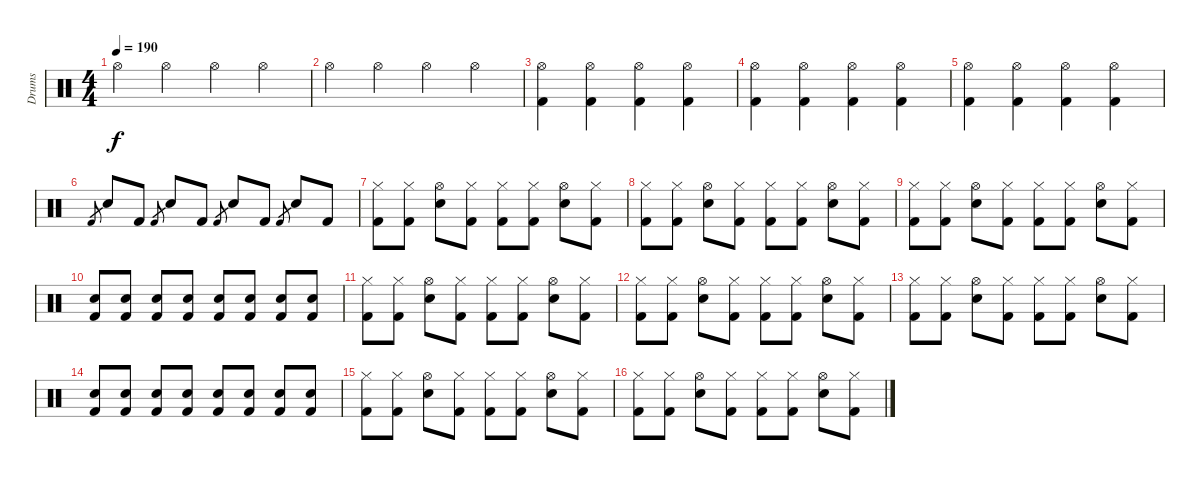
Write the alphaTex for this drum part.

\track ("Drums" "Drums") {instrument percussion}
\staff {score}
\articulation defaults
\ts (4 4)
\tempo 190
\clef neutral
\ks c "Hi-Hat (open)".4{dy f} "Hi-Hat (open)".4 "Hi-Hat (open)".4 "Hi-Hat (open)".4
|
"Hi-Hat (open)".4 "Hi-Hat (open)".4 "Hi-Hat (open)".4 "Hi-Hat (open)".4 |
("Hi-Hat (open)" "Kick (hit) 2").4 ("Hi-Hat (open)" "Kick (hit) 2").4 ("Hi-Hat (open)" "Kick (hit) 2").4 ("Hi-Hat (open)" "Kick (hit) 2").4 |
("Hi-Hat (open)" "Kick (hit) 2").4 ("Hi-Hat (open)" "Kick (hit) 2").4 ("Hi-Hat (open)" "Kick (hit) 2").4 ("Hi-Hat (open)" "Kick (hit) 2").4 |
("Hi-Hat (open)" "Kick (hit) 2").4 ("Hi-Hat (open)" "Kick (hit) 2").4 ("Hi-Hat (open)" "Kick (hit) 2").4 ("Hi-Hat (open)" "Kick (hit) 2").4 |
"Kick (hit) 2"{h}.8{gr} "Snare (hit) 2".8 "Kick (hit) 2".8 "Kick (hit) 2".8{gr} "Snare (hit) 2".8 "Kick (hit) 2".8 "Kick (hit) 2".8{gr} "Snare (hit) 2".8 "Kick (hit) 2".8 "Kick (hit) 2"{h}.8{gr} "Snare (hit) 2".8 "Kick (hit) 2".8 |
("Hi-Hat (closed)" "Kick (hit) 2").8 ("Hi-Hat (closed)" "Kick (hit) 2").8 ("Hi-Hat (open)" "Snare (hit) 2").8 ("Hi-Hat (closed)" "Kick (hit) 2").8 ("Hi-Hat (closed)" "Kick (hit) 2").8 ("Hi-Hat (closed)" "Kick (hit) 2").8 ("Hi-Hat (open)" "Snare (hit) 2").8 ("Hi-Hat (closed)" "Kick (hit) 2").8 |
("Hi-Hat (closed)" "Kick (hit) 2").8 ("Hi-Hat (closed)" "Kick (hit) 2").8 ("Hi-Hat (open)" "Snare (hit) 2").8 ("Hi-Hat (closed)" "Kick (hit) 2").8 ("Hi-Hat (closed)" "Kick (hit) 2").8 ("Hi-Hat (closed)" "Kick (hit) 2").8 ("Hi-Hat (open)" "Snare (hit) 2").8 ("Hi-Hat (closed)" "Kick (hit) 2").8 |
("Hi-Hat (closed)" "Kick (hit) 2").8 ("Hi-Hat (closed)" "Kick (hit) 2").8 ("Hi-Hat (open)" "Snare (hit) 2").8 ("Hi-Hat (closed)" "Kick (hit) 2").8 ("Hi-Hat (closed)" "Kick (hit) 2").8 ("Hi-Hat (closed)" "Kick (hit) 2").8 ("Hi-Hat (open)" "Snare (hit) 2").8 ("Hi-Hat (closed)" "Kick (hit) 2").8 |
("Snare (hit) 2" "Kick (hit) 2").8 ("Snare (hit) 2" "Kick (hit) 2").8 ("Snare (hit) 2" "Kick (hit) 2").8 ("Snare (hit) 2" "Kick (hit) 2").8 ("Snare (hit) 2" "Kick (hit) 2").8 ("Snare (hit) 2" "Kick (hit) 2").8 ("Snare (hit) 2" "Kick (hit) 2").8 ("Snare (hit) 2" "Kick (hit) 2").8 |
("Hi-Hat (closed)" "Kick (hit) 2").8 ("Hi-Hat (closed)" "Kick (hit) 2").8 ("Hi-Hat (open)" "Snare (hit) 2").8 ("Hi-Hat (closed)" "Kick (hit) 2").8 ("Hi-Hat (closed)" "Kick (hit) 2").8 ("Hi-Hat (closed)" "Kick (hit) 2").8 ("Hi-Hat (open)" "Snare (hit) 2").8 ("Hi-Hat (closed)" "Kick (hit) 2").8 |
("Hi-Hat (closed)" "Kick (hit) 2").8 ("Hi-Hat (closed)" "Kick (hit) 2").8 ("Hi-Hat (open)" "Snare (hit) 2").8 ("Hi-Hat (closed)" "Kick (hit) 2").8 ("Hi-Hat (closed)" "Kick (hit) 2").8 ("Hi-Hat (closed)" "Kick (hit) 2").8 ("Hi-Hat (open)" "Snare (hit) 2").8 ("Hi-Hat (closed)" "Kick (hit) 2").8 |
("Hi-Hat (closed)" "Kick (hit) 2").8 ("Hi-Hat (closed)" "Kick (hit) 2").8 ("Hi-Hat (open)" "Snare (hit) 2").8 ("Hi-Hat (closed)" "Kick (hit) 2").8 ("Hi-Hat (closed)" "Kick (hit) 2").8 ("Hi-Hat (closed)" "Kick (hit) 2").8 ("Hi-Hat (open)" "Snare (hit) 2").8 ("Hi-Hat (closed)" "Kick (hit) 2").8 |
("Snare (hit) 2" "Kick (hit) 2").8 ("Snare (hit) 2" "Kick (hit) 2").8 ("Snare (hit) 2" "Kick (hit) 2").8 ("Snare (hit) 2" "Kick (hit) 2").8 ("Snare (hit) 2" "Kick (hit) 2").8 ("Snare (hit) 2" "Kick (hit) 2").8 ("Snare (hit) 2" "Kick (hit) 2").8 ("Snare (hit) 2" "Kick (hit) 2").8 |
("Hi-Hat (closed)" "Kick (hit) 2").8 ("Hi-Hat (closed)" "Kick (hit) 2").8 ("Hi-Hat (open)" "Snare (hit) 2").8 ("Hi-Hat (closed)" "Kick (hit) 2").8 ("Hi-Hat (closed)" "Kick (hit) 2").8 ("Hi-Hat (closed)" "Kick (hit) 2").8 ("Hi-Hat (open)" "Snare (hit) 2").8 ("Hi-Hat (closed)" "Kick (hit) 2").8 |
("Hi-Hat (closed)" "Kick (hit) 2").8 ("Hi-Hat (closed)" "Kick (hit) 2").8 ("Hi-Hat (open)" "Snare (hit) 2").8 ("Hi-Hat (closed)" "Kick (hit) 2").8 ("Hi-Hat (closed)" "Kick (hit) 2").8 ("Hi-Hat (closed)" "Kick (hit) 2").8 ("Hi-Hat (open)" "Snare (hit) 2").8 ("Hi-Hat (closed)" "Kick (hit) 2").8
